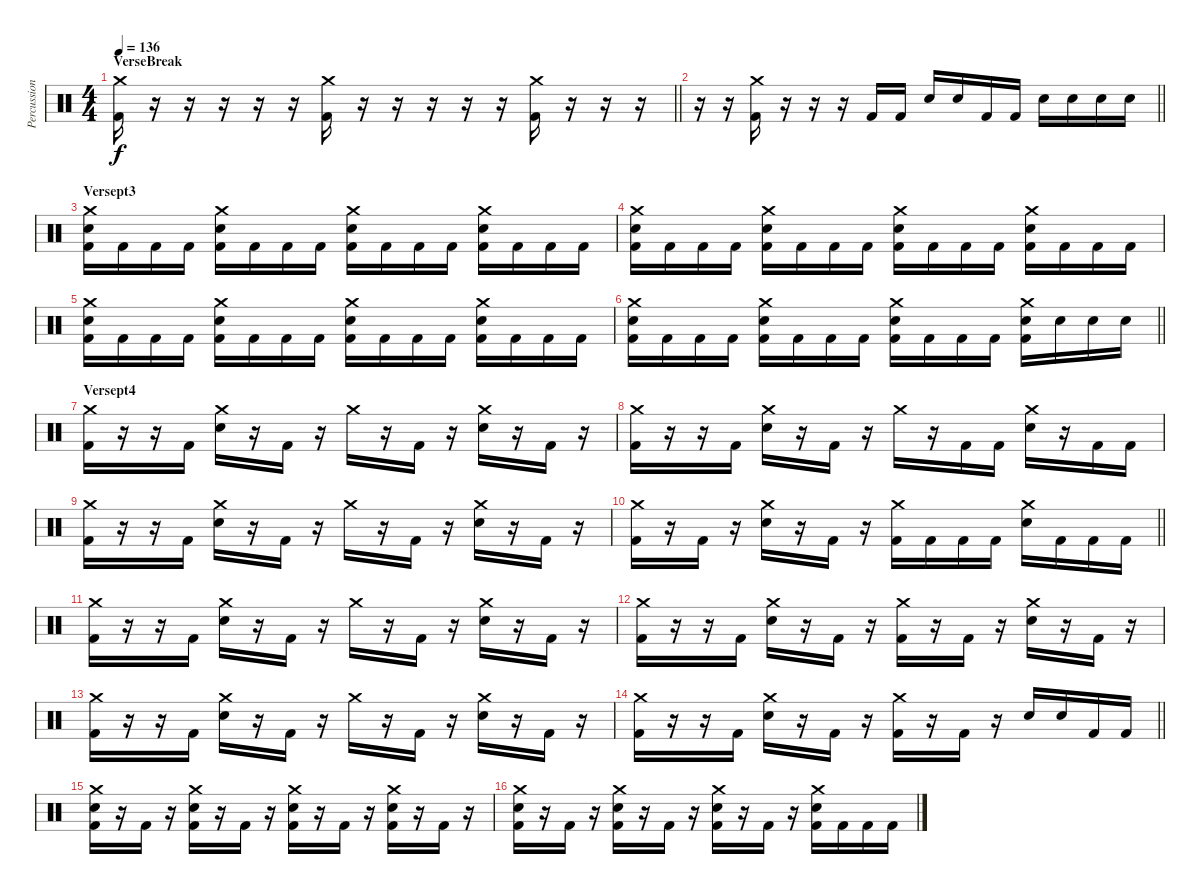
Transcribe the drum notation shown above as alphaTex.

\track ("Percussion" "Percussion") {instrument percussion}
\staff {score}
\articulation defaults
\ts (4 4)
\section ("" "VerseBreak")
\tempo 136
\clef neutral
\barLineRight lightlight
\ks c
("Crash medium (hit)" "Kick (hit) 2").16{dy f} r.16 r.16 r.16 r.16 r.16 ("Crash medium (hit)" "Kick (hit) 2").16 r.16 r.16 r.16 r.16 r.16 ("Crash medium (hit)" "Kick (hit) 2").16 r.16 r.16 r.16 |
\barLineRight lightlight
r.16 r.16 ("Crash medium (hit)" "Kick (hit) 2").16 r.16 r.16 r.16 "Kick (hit) 2".16 "Kick (hit) 2".16 "Electric Snare (hit)".16 "Electric Snare (hit)".16 "Kick (hit) 2".16 "Kick (hit) 2".16 "Electric Snare (hit)".16 "Electric Snare (hit)".16 "Electric Snare (hit)".16 "Electric Snare (hit)".16 |
\section ("" "Versept3")
("Crash medium (hit)" "Electric Snare (hit)" "Kick (hit) 2").16 "Kick (hit) 2".16 "Kick (hit) 2".16 "Kick (hit) 2".16 ("Crash medium (hit)" "Electric Snare (hit)" "Kick (hit) 2").16 "Kick (hit) 2".16 "Kick (hit) 2".16 "Kick (hit) 2".16 ("Crash medium (hit)" "Electric Snare (hit)" "Kick (hit) 2").16 "Kick (hit) 2".16 "Kick (hit) 2".16 "Kick (hit) 2".16 ("Crash medium (hit)" "Electric Snare (hit)" "Kick (hit) 2").16 "Kick (hit) 2".16 "Kick (hit) 2".16 "Kick (hit) 2".16 |
("Crash medium (hit)" "Electric Snare (hit)" "Kick (hit) 2").16 "Kick (hit) 2".16 "Kick (hit) 2".16 "Kick (hit) 2".16 ("Crash medium (hit)" "Electric Snare (hit)" "Kick (hit) 2").16 "Kick (hit) 2".16 "Kick (hit) 2".16 "Kick (hit) 2".16 ("Crash medium (hit)" "Electric Snare (hit)" "Kick (hit) 2").16 "Kick (hit) 2".16 "Kick (hit) 2".16 "Kick (hit) 2".16 ("Crash medium (hit)" "Electric Snare (hit)" "Kick (hit) 2").16 "Kick (hit) 2".16 "Kick (hit) 2".16 "Kick (hit) 2".16 |
("Crash medium (hit)" "Electric Snare (hit)" "Kick (hit) 2").16 "Kick (hit) 2".16 "Kick (hit) 2".16 "Kick (hit) 2".16 ("Crash medium (hit)" "Electric Snare (hit)" "Kick (hit) 2").16 "Kick (hit) 2".16 "Kick (hit) 2".16 "Kick (hit) 2".16 ("Crash medium (hit)" "Electric Snare (hit)" "Kick (hit) 2").16 "Kick (hit) 2".16 "Kick (hit) 2".16 "Kick (hit) 2".16 ("Crash medium (hit)" "Electric Snare (hit)" "Kick (hit) 2").16 "Kick (hit) 2".16 "Kick (hit) 2".16 "Kick (hit) 2".16 |
\barLineRight lightlight
("Crash medium (hit)" "Electric Snare (hit)" "Kick (hit) 2").16 "Kick (hit) 2".16 "Kick (hit) 2".16 "Kick (hit) 2".16 ("Crash medium (hit)" "Electric Snare (hit)" "Kick (hit) 2").16 "Kick (hit) 2".16 "Kick (hit) 2".16 "Kick (hit) 2".16 ("Crash medium (hit)" "Electric Snare (hit)" "Kick (hit) 2").16 "Kick (hit) 2".16 "Kick (hit) 2".16 "Kick (hit) 2".16 ("Crash medium (hit)" "Electric Snare (hit)" "Kick (hit) 2").16 "Electric Snare (hit)".16 "Electric Snare (hit)".16 "Electric Snare (hit)".16 |
\section ("" "Versept4")
("Crash medium (hit)" "Kick (hit) 2").16 r.16 r.16 "Kick (hit) 2".16 ("Crash medium (hit)" "Electric Snare (hit)").16 r.16 "Kick (hit) 2".16 r.16 "Crash medium (hit)".16 r.16 "Kick (hit) 2".16 r.16 ("Crash medium (hit)" "Electric Snare (hit)").16 r.16 "Kick (hit) 2".16 r.16 |
("Crash medium (hit)" "Kick (hit) 2").16 r.16 r.16 "Kick (hit) 2".16 ("Crash medium (hit)" "Electric Snare (hit)").16 r.16 "Kick (hit) 2".16 r.16 "Crash medium (hit)".16 r.16 "Kick (hit) 2".16 "Kick (hit) 2".16 ("Crash medium (hit)" "Electric Snare (hit)").16 r.16 "Kick (hit) 2".16 "Kick (hit) 2".16 |
("Crash medium (hit)" "Kick (hit) 2").16 r.16 r.16 "Kick (hit) 2".16 ("Crash medium (hit)" "Electric Snare (hit)").16 r.16 "Kick (hit) 2".16 r.16 "Crash medium (hit)".16 r.16 "Kick (hit) 2".16 r.16 ("Crash medium (hit)" "Electric Snare (hit)").16 r.16 "Kick (hit) 2".16 r.16 |
\barLineRight lightlight
("Crash medium (hit)" "Kick (hit) 2").16 r.16 "Kick (hit) 2".16 r.16 ("Crash medium (hit)" "Electric Snare (hit)").16 r.16 "Kick (hit) 2".16 r.16 ("Crash medium (hit)" "Kick (hit) 2").16 "Kick (hit) 2".16 "Kick (hit) 2".16 "Kick (hit) 2".16 ("Crash medium (hit)" "Electric Snare (hit)").16 "Kick (hit) 2".16 "Kick (hit) 2".16 "Kick (hit) 2".16 |
("Crash medium (hit)" "Kick (hit) 2").16 r.16 r.16 "Kick (hit) 2".16 ("Crash medium (hit)" "Electric Snare (hit)").16 r.16 "Kick (hit) 2".16 r.16 "Crash medium (hit)".16 r.16 "Kick (hit) 2".16 r.16 ("Crash medium (hit)" "Electric Snare (hit)").16 r.16 "Kick (hit) 2".16 r.16 |
("Crash medium (hit)" "Kick (hit) 2").16 r.16 r.16 "Kick (hit) 2".16 ("Crash medium (hit)" "Electric Snare (hit)").16 r.16 "Kick (hit) 2".16 r.16 ("Crash medium (hit)" "Kick (hit) 2").16 r.16 "Kick (hit) 2".16 r.16 ("Crash medium (hit)" "Electric Snare (hit)").16 r.16 "Kick (hit) 2".16 r.16 |
("Crash medium (hit)" "Kick (hit) 2").16 r.16 r.16 "Kick (hit) 2".16 ("Crash medium (hit)" "Electric Snare (hit)").16 r.16 "Kick (hit) 2".16 r.16 "Crash medium (hit)".16 r.16 "Kick (hit) 2".16 r.16 ("Crash medium (hit)" "Electric Snare (hit)").16 r.16 "Kick (hit) 2".16 r.16 |
\barLineRight lightlight
("Crash medium (hit)" "Kick (hit) 2").16 r.16 r.16 "Kick (hit) 2".16 ("Crash medium (hit)" "Electric Snare (hit)").16 r.16 "Kick (hit) 2".16 r.16 ("Crash medium (hit)" "Kick (hit) 2").16 r.16 "Kick (hit) 2".16 r.16 "Electric Snare (hit)".16 "Electric Snare (hit)".16 "Kick (hit) 2".16 "Kick (hit) 2".16 |
("Crash medium (hit)" "Electric Snare (hit)" "Kick (hit) 2").16 r.16 "Kick (hit) 2".16 r.16 ("Crash medium (hit)" "Electric Snare (hit)" "Kick (hit) 2").16 r.16 "Kick (hit) 2".16 r.16 ("Crash medium (hit)" "Electric Snare (hit)" "Kick (hit) 2").16 r.16 "Kick (hit) 2".16 r.16 ("Crash medium (hit)" "Electric Snare (hit)" "Kick (hit) 2").16 r.16 "Kick (hit) 2".16 r.16 |
("Crash medium (hit)" "Electric Snare (hit)" "Kick (hit) 2").16 r.16 "Kick (hit) 2".16 r.16 ("Crash medium (hit)" "Electric Snare (hit)" "Kick (hit) 2").16 r.16 "Kick (hit) 2".16 r.16 ("Crash medium (hit)" "Electric Snare (hit)" "Kick (hit) 2").16 r.16 "Kick (hit) 2".16 r.16 ("Crash medium (hit)" "Electric Snare (hit)" "Kick (hit) 2").16 "Kick (hit) 2".16 "Kick (hit) 2".16 "Kick (hit) 2".16
